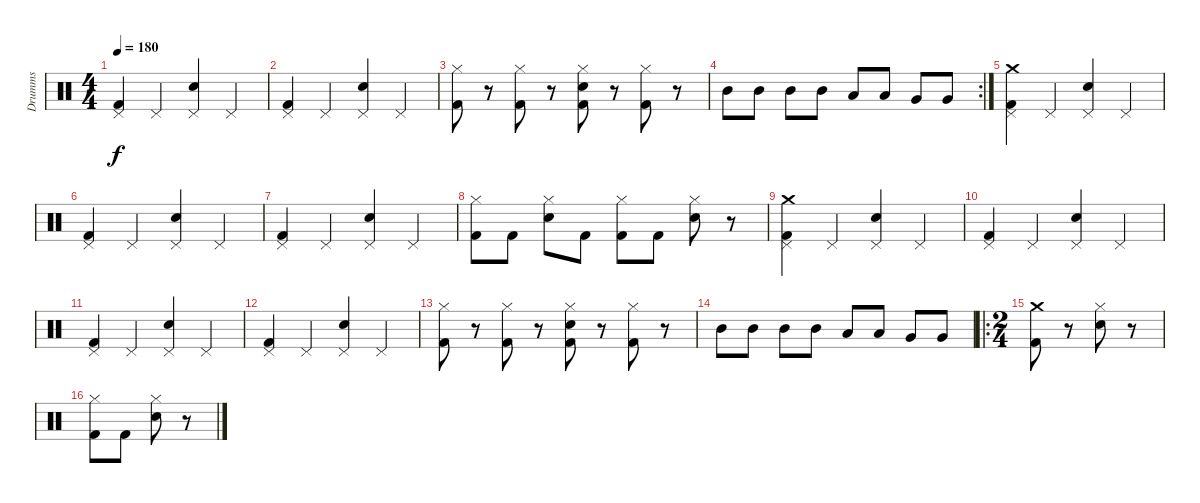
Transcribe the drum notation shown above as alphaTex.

\track ("Drumms" "Drumms") {instrument percussion}
\staff {score}
\articulation defaults
\ts (4 4)
\tempo 180
\clef neutral
\ks c
("Kick (hit) 2" "Pedal Hi-Hat (hit)").4{dy f} "Pedal Hi-Hat (hit)".4 ("Snare (hit) 2" "Pedal Hi-Hat (hit)").4 "Pedal Hi-Hat (hit)".4 |
("Kick (hit) 2" "Pedal Hi-Hat (hit)").4 "Pedal Hi-Hat (hit)".4 ("Snare (hit) 2" "Pedal Hi-Hat (hit)").4 "Pedal Hi-Hat (hit)".4 |
("Kick (hit) 2" "Hi-Hat (closed)").8 r.8 ("Kick (hit) 2" "Hi-Hat (closed)").8 r.8 ("Kick (hit) 2" "Snare (hit) 2" "Hi-Hat (closed)").8 r.8 ("Kick (hit) 2" "Hi-Hat (closed)").8 r.8 |
\rc 2 "Mid Tom (hit)".8 "Mid Tom (hit)".8 "Mid Tom (hit)".8 "Mid Tom (hit)".8 "Low Tom (hit)".8 "Low Tom (hit)".8 "Very Low Tom (hit)".8 "Very Low Tom (hit)".8
|
("Kick (hit) 2" "Crash medium (hit)" "Pedal Hi-Hat (hit)").4 "Pedal Hi-Hat (hit)".4 ("Snare (hit) 2" "Pedal Hi-Hat (hit)").4 "Pedal Hi-Hat (hit)".4 |
("Kick (hit) 2" "Pedal Hi-Hat (hit)").4 "Pedal Hi-Hat (hit)".4 ("Snare (hit) 2" "Pedal Hi-Hat (hit)").4 "Pedal Hi-Hat (hit)".4 |
("Kick (hit) 2" "Pedal Hi-Hat (hit)").4 "Pedal Hi-Hat (hit)".4 ("Snare (hit) 2" "Pedal Hi-Hat (hit)").4 "Pedal Hi-Hat (hit)".4 |
("Kick (hit) 2" "Hi-Hat (closed)").8 "Kick (hit) 2".8 ("Snare (hit) 2" "Hi-Hat (closed)").8 "Kick (hit) 2".8 ("Kick (hit) 2" "Hi-Hat (closed)").8 "Kick (hit) 2".8 ("Snare (hit) 2" "Hi-Hat (closed)").8 r.8 |
("Kick (hit) 2" "Crash medium (hit)" "Pedal Hi-Hat (hit)").4 "Pedal Hi-Hat (hit)".4 ("Snare (hit) 2" "Pedal Hi-Hat (hit)").4 "Pedal Hi-Hat (hit)".4 |
("Kick (hit) 2" "Pedal Hi-Hat (hit)").4 "Pedal Hi-Hat (hit)".4 ("Snare (hit) 2" "Pedal Hi-Hat (hit)").4 "Pedal Hi-Hat (hit)".4 |
("Kick (hit) 2" "Pedal Hi-Hat (hit)").4 "Pedal Hi-Hat (hit)".4 ("Snare (hit) 2" "Pedal Hi-Hat (hit)").4 "Pedal Hi-Hat (hit)".4 |
("Kick (hit) 2" "Pedal Hi-Hat (hit)").4 "Pedal Hi-Hat (hit)".4 ("Snare (hit) 2" "Pedal Hi-Hat (hit)").4 "Pedal Hi-Hat (hit)".4 |
("Kick (hit) 2" "Hi-Hat (closed)").8 r.8 ("Kick (hit) 2" "Hi-Hat (closed)").8 r.8 ("Kick (hit) 2" "Snare (hit) 2" "Hi-Hat (closed)").8 r.8 ("Kick (hit) 2" "Hi-Hat (closed)").8 r.8 |
"Mid Tom (hit)".8 "Mid Tom (hit)".8 "Mid Tom (hit)".8 "Mid Tom (hit)".8 "Low Tom (hit)".8 "Low Tom (hit)".8 "Very Low Tom (hit)".8 "Very Low Tom (hit)".8 |
\ro
\ts (2 4)
("Kick (hit) 2" "Crash medium (hit)").8 r.8 ("Snare (hit) 2" "Hi-Hat (closed)").8 r.8 |
("Kick (hit) 2" "Hi-Hat (closed)").8 "Kick (hit) 2".8 ("Snare (hit) 2" "Hi-Hat (closed)").8 r.8
